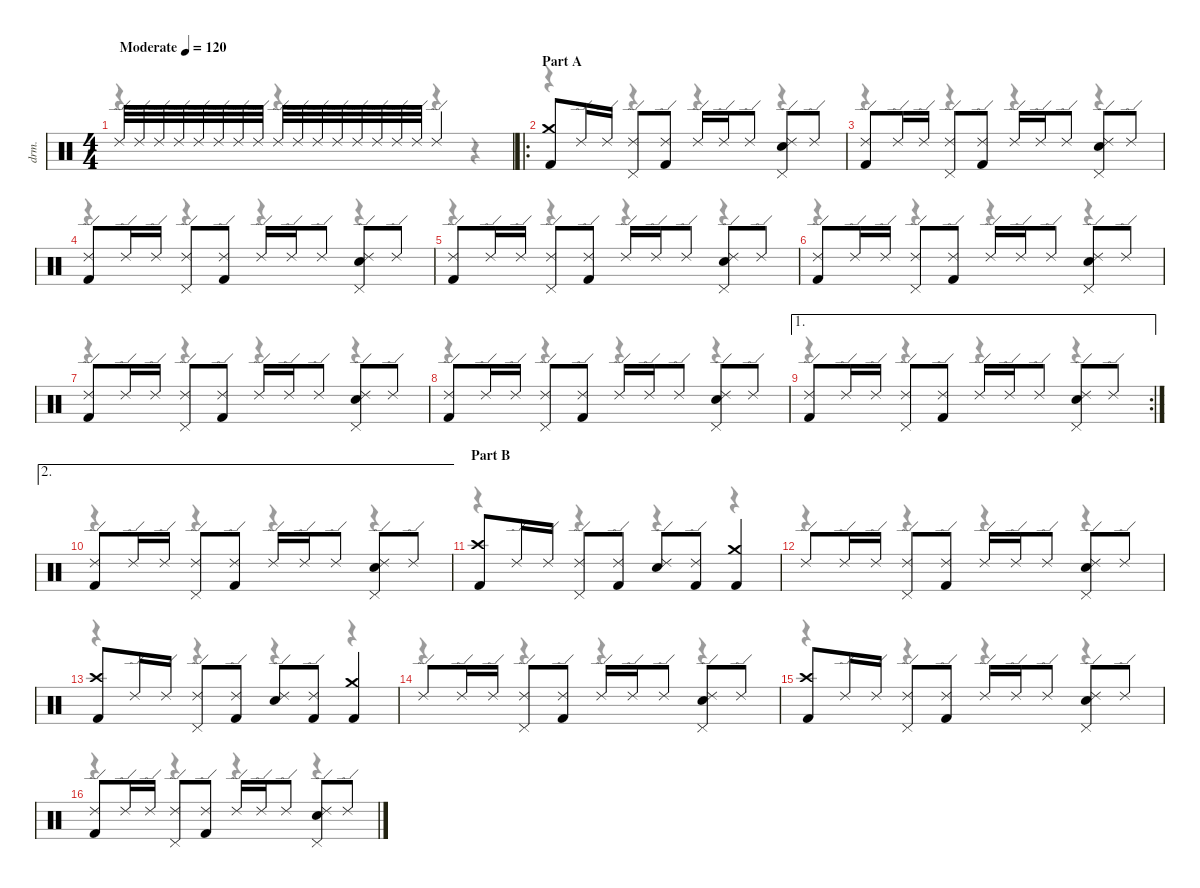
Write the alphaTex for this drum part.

\defaultSystemsLayout 4
\hideDynamics
\bracketExtendMode nobrackets
\otherSystemsTrackNameOrientation horizontal
\track ("Percussion" "drm.") {instrument percussion}
\staff {score}
\articulation defaults
\voice
\ts (4 4)
\beaming (8 2 2 2 2)
\tempo (120 "Moderate")
\clef neutral
\ks c "Ride (edge) 2".32{dy f} "Ride (edge) 2".32 "Ride (edge) 2".32 "Ride (edge) 2".32 "Ride (edge) 2".32 "Ride (edge) 2".32 "Ride (edge) 2".32 "Ride (edge) 2".32 "Ride (edge) 2".32 "Ride (edge) 2".32 "Ride (edge) 2".32 "Ride (edge) 2".32 "Ride (edge) 2".32 "Ride (edge) 2".32 "Ride (edge) 2".32 "Ride (edge) 2".32 "Ride (edge) 2".2
|
\ro
\section ("" "Part A")
("Crash medium (hit)" "Kick (hit) 2").8 "Ride (edge) 2".16 "Ride (edge) 2".16 ("Ride (edge) 2" "Pedal Hi-Hat (hit)").8 ("Ride (edge) 2" "Kick (hit) 2").8 "Ride (edge) 2".16 "Ride (edge) 2".16 "Ride (edge) 2".8 ("Ride (edge) 2" "Pedal Hi-Hat (hit)" "Snare (hit) 2").8 "Ride (edge) 2".8 |
("Ride (edge) 2" "Kick (hit) 2").8 "Ride (edge) 2".16 "Ride (edge) 2".16 ("Ride (edge) 2" "Pedal Hi-Hat (hit)").8 ("Ride (edge) 2" "Kick (hit) 2").8 "Ride (edge) 2".16 "Ride (edge) 2".16 "Ride (edge) 2".8 ("Ride (edge) 2" "Pedal Hi-Hat (hit)" "Snare (hit) 2").8 "Ride (edge) 2".8 |
("Ride (edge) 2" "Kick (hit) 2").8 "Ride (edge) 2".16 "Ride (edge) 2".16 ("Ride (edge) 2" "Pedal Hi-Hat (hit)").8 ("Ride (edge) 2" "Kick (hit) 2").8 "Ride (edge) 2".16 "Ride (edge) 2".16 "Ride (edge) 2".8 ("Ride (edge) 2" "Pedal Hi-Hat (hit)" "Snare (hit) 2").8 "Ride (edge) 2".8 |
("Ride (edge) 2" "Kick (hit) 2").8 "Ride (edge) 2".16 "Ride (edge) 2".16 ("Ride (edge) 2" "Pedal Hi-Hat (hit)").8 ("Ride (edge) 2" "Kick (hit) 2").8 "Ride (edge) 2".16 "Ride (edge) 2".16 "Ride (edge) 2".8 ("Ride (edge) 2" "Pedal Hi-Hat (hit)" "Snare (hit) 2").8 "Ride (edge) 2".8 |
("Ride (edge) 2" "Kick (hit) 2").8 "Ride (edge) 2".16 "Ride (edge) 2".16 ("Ride (edge) 2" "Pedal Hi-Hat (hit)").8 ("Ride (edge) 2" "Kick (hit) 2").8 "Ride (edge) 2".16 "Ride (edge) 2".16 "Ride (edge) 2".8 ("Ride (edge) 2" "Pedal Hi-Hat (hit)" "Snare (hit) 2").8 "Ride (edge) 2".8 |
("Ride (edge) 2" "Kick (hit) 2").8 "Ride (edge) 2".16 "Ride (edge) 2".16 ("Ride (edge) 2" "Pedal Hi-Hat (hit)").8 ("Ride (edge) 2" "Kick (hit) 2").8 "Ride (edge) 2".16 "Ride (edge) 2".16 "Ride (edge) 2".8 ("Ride (edge) 2" "Pedal Hi-Hat (hit)" "Snare (hit) 2").8 "Ride (edge) 2".8 |
("Ride (edge) 2" "Kick (hit) 2").8 "Ride (edge) 2".16 "Ride (edge) 2".16 ("Ride (edge) 2" "Pedal Hi-Hat (hit)").8 ("Ride (edge) 2" "Kick (hit) 2").8 "Ride (edge) 2".16 "Ride (edge) 2".16 "Ride (edge) 2".8 ("Ride (edge) 2" "Pedal Hi-Hat (hit)" "Snare (hit) 2").8 "Ride (edge) 2".8 |
\ae 1
\rc 2
("Ride (edge) 2" "Kick (hit) 2").8 "Ride (edge) 2".16 "Ride (edge) 2".16 ("Ride (edge) 2" "Pedal Hi-Hat (hit)").8 ("Ride (edge) 2" "Kick (hit) 2").8 "Ride (edge) 2".16 "Ride (edge) 2".16 "Ride (edge) 2".8 ("Ride (edge) 2" "Pedal Hi-Hat (hit)" "Snare (hit) 2").8 "Ride (edge) 2".8 |
\ae 2
("Ride (edge) 2" "Kick (hit) 2").8 "Ride (edge) 2".16 "Ride (edge) 2".16 ("Ride (edge) 2" "Pedal Hi-Hat (hit)").8 ("Ride (edge) 2" "Kick (hit) 2").8 "Ride (edge) 2".16 "Ride (edge) 2".16 "Ride (edge) 2".8 ("Ride (edge) 2" "Pedal Hi-Hat (hit)" "Snare (hit) 2").8 "Ride (edge) 2".8 |
\section ("" "Part B")
("Crash high (hit)" "Kick (hit) 2").8 "Ride (edge) 2".16 "Ride (edge) 2".16 ("Ride (edge) 2" "Pedal Hi-Hat (hit)").8 ("Ride (edge) 2" "Kick (hit) 2").8 ("Ride (edge) 2" "Snare (hit) 2").8 ("Ride (edge) 2" "Kick (hit) 2").8 ("Crash medium (hit)" "Kick (hit) 2").4 |
"Ride (edge) 2".8 "Ride (edge) 2".16 "Ride (edge) 2".16 ("Ride (edge) 2" "Pedal Hi-Hat (hit)").8 ("Ride (edge) 2" "Kick (hit) 2").8 "Ride (edge) 2".16 "Ride (edge) 2".16 "Ride (edge) 2".8 ("Ride (edge) 2" "Pedal Hi-Hat (hit)" "Snare (hit) 2").8 "Ride (edge) 2".8 |
("Crash high (hit)" "Kick (hit) 2").8 "Ride (edge) 2".16 "Ride (edge) 2".16 ("Ride (edge) 2" "Pedal Hi-Hat (hit)").8 ("Ride (edge) 2" "Kick (hit) 2").8 ("Ride (edge) 2" "Snare (hit) 2").8 ("Ride (edge) 2" "Kick (hit) 2").8 ("Crash medium (hit)" "Kick (hit) 2").4 |
"Ride (edge) 2".8 "Ride (edge) 2".16 "Ride (edge) 2".16 ("Ride (edge) 2" "Pedal Hi-Hat (hit)").8 ("Ride (edge) 2" "Kick (hit) 2").8 "Ride (edge) 2".16 "Ride (edge) 2".16 "Ride (edge) 2".8 ("Ride (edge) 2" "Pedal Hi-Hat (hit)" "Snare (hit) 2").8 "Ride (edge) 2".8 |
("Crash high (hit)" "Kick (hit) 2").8 "Ride (edge) 2".16 "Ride (edge) 2".16 ("Ride (edge) 2" "Pedal Hi-Hat (hit)").8 ("Ride (edge) 2" "Kick (hit) 2").8 "Ride (edge) 2".16 "Ride (edge) 2".16 "Ride (edge) 2".8 ("Ride (edge) 2" "Pedal Hi-Hat (hit)" "Snare (hit) 2").8 "Ride (edge) 2".8 |
("Ride (edge) 2" "Kick (hit) 2").8 "Ride (edge) 2".16 "Ride (edge) 2".16 ("Ride (edge) 2" "Pedal Hi-Hat (hit)").8 ("Ride (edge) 2" "Kick (hit) 2").8 "Ride (edge) 2".16 "Ride (edge) 2".16 "Ride (edge) 2".8 ("Ride (edge) 2" "Pedal Hi-Hat (hit)" "Snare (hit) 2").8 "Ride (edge) 2".8
\voice
\clef neutral
\ottava regular
\simile none
\ks c
r.4{dy mf} r.4 r.4 r.4 |
r.4 r.4 r.4 r.4 |
r.4 r.4 r.4 r.4 |
r.4 r.4 r.4 r.4 |
r.4 r.4 r.4 r.4 |
r.4 r.4 r.4 r.4 |
r.4 r.4 r.4 r.4 |
r.4 r.4 r.4 r.4 |
r.4 r.4 r.4 r.4 |
r.4 r.4 r.4 r.4 |
r.4 r.4 r.4 r.4 |
r.4 r.4 r.4 r.4 |
r.4 r.4 r.4 r.4 |
r.4 r.4 r.4 r.4 |
r.4 r.4 r.4 r.4 |
r.4 r.4 r.4 r.4
